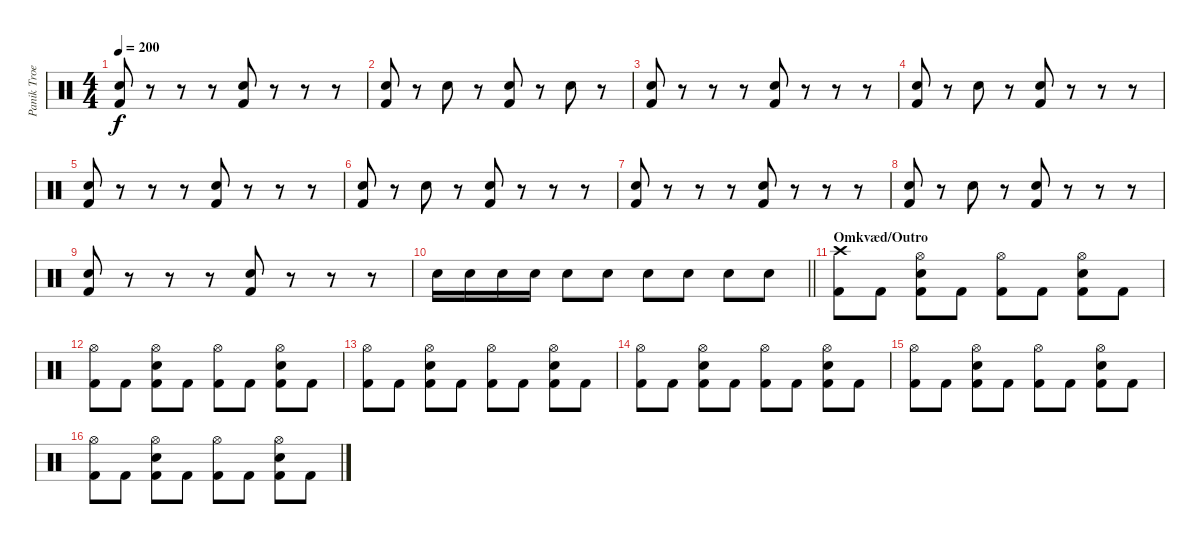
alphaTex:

\track ("Panik Troels ( Dengang )" "Panik Troe") {instrument percussion}
\staff {score}
\articulation defaults
\ts (4 4)
\tempo 200
\clef neutral
\ks c
("Kick (hit) 2" "Snare (hit) 2").8{dy f} r.8 r.8 r.8 ("Kick (hit) 2" "Snare (hit) 2").8 r.8 r.8 r.8 |
("Kick (hit) 2" "Snare (hit) 2").8 r.8 "Snare (hit) 2".8 r.8 ("Kick (hit) 2" "Snare (hit) 2").8 r.8 "Snare (hit) 2".8 r.8 |
("Kick (hit) 2" "Snare (hit) 2").8 r.8 r.8 r.8 ("Kick (hit) 2" "Snare (hit) 2").8 r.8 r.8 r.8 |
("Kick (hit) 2" "Snare (hit) 2").8 r.8 "Snare (hit) 2".8 r.8 ("Kick (hit) 2" "Snare (hit) 2").8 r.8 r.8 r.8 |
("Kick (hit) 2" "Snare (hit) 2").8 r.8 r.8 r.8 ("Kick (hit) 2" "Snare (hit) 2").8 r.8 r.8 r.8 |
("Kick (hit) 2" "Snare (hit) 2").8 r.8 "Snare (hit) 2".8 r.8 ("Kick (hit) 2" "Snare (hit) 2").8 r.8 r.8 r.8 |
("Kick (hit) 2" "Snare (hit) 2").8 r.8 r.8 r.8 ("Kick (hit) 2" "Snare (hit) 2").8 r.8 r.8 r.8 |
("Kick (hit) 2" "Snare (hit) 2").8 r.8 "Snare (hit) 2".8 r.8 ("Kick (hit) 2" "Snare (hit) 2").8 r.8 r.8 r.8 |
("Kick (hit) 2" "Snare (hit) 2").8 r.8 r.8 r.8 ("Kick (hit) 2" "Snare (hit) 2").8 r.8 r.8 r.8 |
\barLineRight lightlight "Snare (hit) 2".16 "Snare (hit) 2".16 "Snare (hit) 2".16 "Snare (hit) 2".16 "Snare (hit) 2".8 "Snare (hit) 2".8 "Snare (hit) 2".8 "Snare (hit) 2".8 "Snare (hit) 2".8 "Snare (hit) 2".8
|
\section ("" "Omkvæd/Outro")
("Kick (hit) 2" "Crash high (hit)").8 "Kick (hit) 2".8 ("Kick (hit) 2" "Hi-Hat (open)" "Snare (hit) 2").8 "Kick (hit) 2".8 ("Kick (hit) 2" "Hi-Hat (open)").8 "Kick (hit) 2".8 ("Kick (hit) 2" "Hi-Hat (open)" "Snare (hit) 2").8 "Kick (hit) 2".8 |
("Kick (hit) 2" "Hi-Hat (open)").8 "Kick (hit) 2".8 ("Kick (hit) 2" "Hi-Hat (open)" "Snare (hit) 2").8 "Kick (hit) 2".8 ("Kick (hit) 2" "Hi-Hat (open)").8 "Kick (hit) 2".8 ("Kick (hit) 2" "Hi-Hat (open)" "Snare (hit) 2").8 "Kick (hit) 2".8 |
("Kick (hit) 2" "Hi-Hat (open)").8 "Kick (hit) 2".8 ("Kick (hit) 2" "Hi-Hat (open)" "Snare (hit) 2").8 "Kick (hit) 2".8 ("Kick (hit) 2" "Hi-Hat (open)").8 "Kick (hit) 2".8 ("Kick (hit) 2" "Hi-Hat (open)" "Snare (hit) 2").8 "Kick (hit) 2".8 |
("Kick (hit) 2" "Hi-Hat (open)").8 "Kick (hit) 2".8 ("Kick (hit) 2" "Hi-Hat (open)" "Snare (hit) 2").8 "Kick (hit) 2".8 ("Kick (hit) 2" "Hi-Hat (open)").8 "Kick (hit) 2".8 ("Kick (hit) 2" "Hi-Hat (open)" "Snare (hit) 2").8 "Kick (hit) 2".8 |
("Kick (hit) 2" "Hi-Hat (open)").8 "Kick (hit) 2".8 ("Kick (hit) 2" "Hi-Hat (open)" "Snare (hit) 2").8 "Kick (hit) 2".8 ("Kick (hit) 2" "Hi-Hat (open)").8 "Kick (hit) 2".8 ("Kick (hit) 2" "Hi-Hat (open)" "Snare (hit) 2").8 "Kick (hit) 2".8 |
("Kick (hit) 2" "Hi-Hat (open)").8 "Kick (hit) 2".8 ("Kick (hit) 2" "Hi-Hat (open)" "Snare (hit) 2").8 "Kick (hit) 2".8 ("Kick (hit) 2" "Hi-Hat (open)").8 "Kick (hit) 2".8 ("Kick (hit) 2" "Hi-Hat (open)" "Snare (hit) 2").8 "Kick (hit) 2".8
